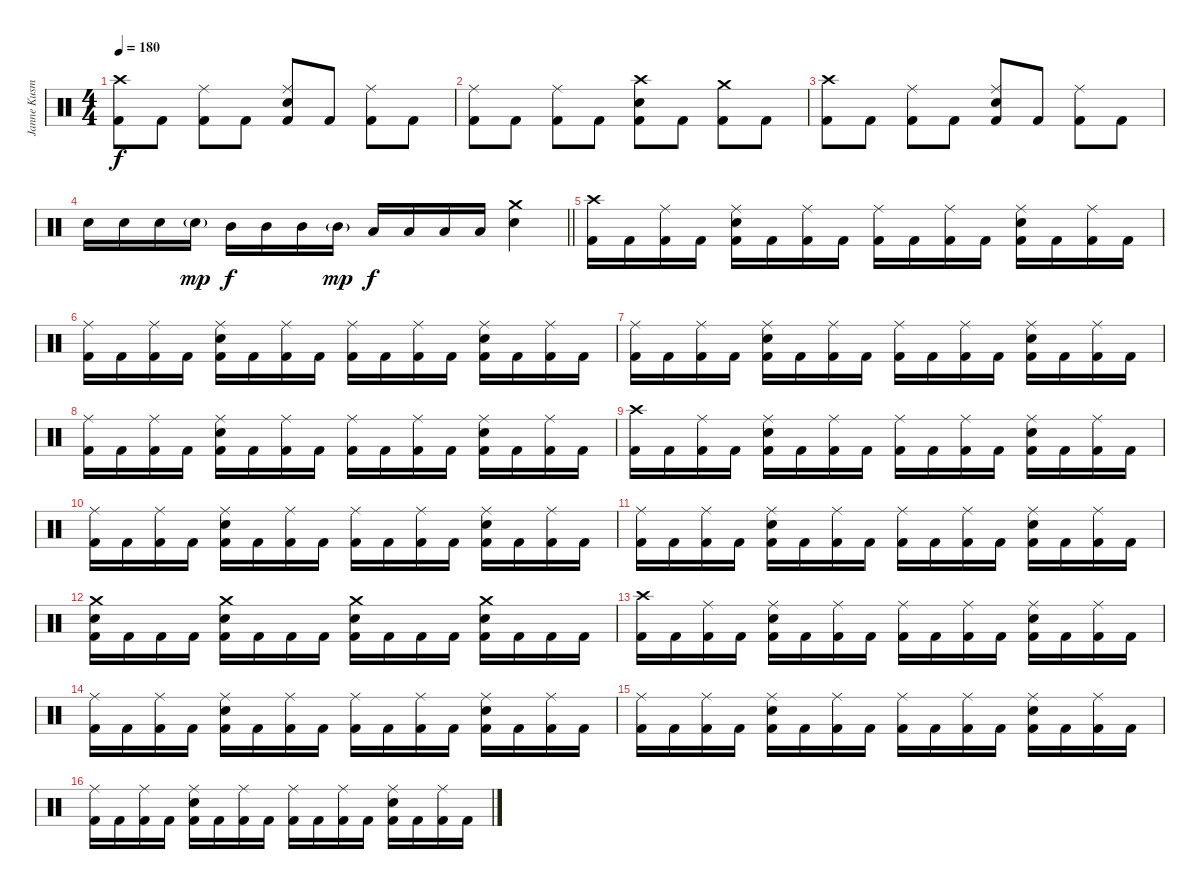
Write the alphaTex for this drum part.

\track ("Janne Kusmin - Drums" "Janne Kusm") {instrument percussion}
\staff {score}
\articulation defaults
\ts (4 4)
\tempo 180
\clef neutral
\ks c
("Crash high (hit)" "Kick (hit) 2").8{dy f} "Kick (hit) 2".8 ("Ride (middle)" "Kick (hit) 2").8 "Kick (hit) 2".8 ("Ride (middle)" "Electric Snare (hit)" "Kick (hit) 2").8 "Kick (hit) 2".8 ("Ride (middle)" "Kick (hit) 2").8 "Kick (hit) 2".8 |
("Ride (middle)" "Kick (hit) 2").8 "Kick (hit) 2".8 ("Ride (middle)" "Kick (hit) 2").8 "Kick (hit) 2".8 ("Crash high (hit)" "Electric Snare (hit)" "Kick (hit) 2").8 "Kick (hit) 2".8 ("Crash medium (hit)" "Kick (hit) 2").8 "Kick (hit) 2".8 |
("Crash high (hit)" "Kick (hit) 2").8 "Kick (hit) 2".8 ("Ride (middle)" "Kick (hit) 2").8 "Kick (hit) 2".8 ("Ride (middle)" "Electric Snare (hit)" "Kick (hit) 2").8 "Kick (hit) 2".8 ("Ride (middle)" "Kick (hit) 2").8 "Kick (hit) 2".8 |
\barLineRight lightlight "Electric Snare (hit)".16 "Electric Snare (hit)".16 "Electric Snare (hit)".16 "Electric Snare (hit)"{g}.16{dy mp} "Mid Tom (hit)".16{dy f} "Mid Tom (hit)".16 "Mid Tom (hit)".16 "Mid Tom (hit)"{g}.16{dy mp} "Low Tom (hit)".16{dy f} "Low Tom (hit)".16 "Low Tom (hit)".16 "Low Tom (hit)".16
("Crash medium (hit)" "Electric Snare (hit)").4 |
\section ("" "")
("Crash high (hit)" "Kick (hit) 2").16 "Kick (hit) 2".16 ("Ride (middle)" "Kick (hit) 2").16 "Kick (hit) 2".16 ("Ride (middle)" "Electric Snare (hit)" "Kick (hit) 2").16 "Kick (hit) 2".16 ("Ride (middle)" "Kick (hit) 2").16 "Kick (hit) 2".16 ("Ride (middle)" "Kick (hit) 2").16 "Kick (hit) 2".16 ("Ride (middle)" "Kick (hit) 2").16 "Kick (hit) 2".16 ("Ride (middle)" "Electric Snare (hit)" "Kick (hit) 2").16 "Kick (hit) 2".16 ("Ride (middle)" "Kick (hit) 2").16 "Kick (hit) 2".16 |
("Ride (middle)" "Kick (hit) 2").16 "Kick (hit) 2".16 ("Ride (middle)" "Kick (hit) 2").16 "Kick (hit) 2".16 ("Ride (middle)" "Electric Snare (hit)" "Kick (hit) 2").16 "Kick (hit) 2".16 ("Ride (middle)" "Kick (hit) 2").16 "Kick (hit) 2".16 ("Ride (middle)" "Kick (hit) 2").16 "Kick (hit) 2".16 ("Ride (middle)" "Kick (hit) 2").16 "Kick (hit) 2".16 ("Ride (middle)" "Electric Snare (hit)" "Kick (hit) 2").16 "Kick (hit) 2".16 ("Ride (middle)" "Kick (hit) 2").16 "Kick (hit) 2".16 |
("Ride (middle)" "Kick (hit) 2").16 "Kick (hit) 2".16 ("Ride (middle)" "Kick (hit) 2").16 "Kick (hit) 2".16 ("Ride (middle)" "Electric Snare (hit)" "Kick (hit) 2").16 "Kick (hit) 2".16 ("Ride (middle)" "Kick (hit) 2").16 "Kick (hit) 2".16 ("Ride (middle)" "Kick (hit) 2").16 "Kick (hit) 2".16 ("Ride (middle)" "Kick (hit) 2").16 "Kick (hit) 2".16 ("Ride (middle)" "Electric Snare (hit)" "Kick (hit) 2").16 "Kick (hit) 2".16 ("Ride (middle)" "Kick (hit) 2").16 "Kick (hit) 2".16 |
("Ride (middle)" "Kick (hit) 2").16 "Kick (hit) 2".16 ("Ride (middle)" "Kick (hit) 2").16 "Kick (hit) 2".16 ("Ride (middle)" "Electric Snare (hit)" "Kick (hit) 2").16 "Kick (hit) 2".16 ("Ride (middle)" "Kick (hit) 2").16 "Kick (hit) 2".16 ("Ride (middle)" "Kick (hit) 2").16 "Kick (hit) 2".16 ("Ride (middle)" "Kick (hit) 2").16 "Kick (hit) 2".16 ("Ride (middle)" "Electric Snare (hit)" "Kick (hit) 2").16 "Kick (hit) 2".16 ("Ride (middle)" "Kick (hit) 2").16 "Kick (hit) 2".16 |
("Crash high (hit)" "Kick (hit) 2").16 "Kick (hit) 2".16 ("Ride (middle)" "Kick (hit) 2").16 "Kick (hit) 2".16 ("Ride (middle)" "Electric Snare (hit)" "Kick (hit) 2").16 "Kick (hit) 2".16 ("Ride (middle)" "Kick (hit) 2").16 "Kick (hit) 2".16 ("Ride (middle)" "Kick (hit) 2").16 "Kick (hit) 2".16 ("Ride (middle)" "Kick (hit) 2").16 "Kick (hit) 2".16 ("Ride (middle)" "Electric Snare (hit)" "Kick (hit) 2").16 "Kick (hit) 2".16 ("Ride (middle)" "Kick (hit) 2").16 "Kick (hit) 2".16 |
("Ride (middle)" "Kick (hit) 2").16 "Kick (hit) 2".16 ("Ride (middle)" "Kick (hit) 2").16 "Kick (hit) 2".16 ("Ride (middle)" "Electric Snare (hit)" "Kick (hit) 2").16 "Kick (hit) 2".16 ("Ride (middle)" "Kick (hit) 2").16 "Kick (hit) 2".16 ("Ride (middle)" "Kick (hit) 2").16 "Kick (hit) 2".16 ("Ride (middle)" "Kick (hit) 2").16 "Kick (hit) 2".16 ("Ride (middle)" "Electric Snare (hit)" "Kick (hit) 2").16 "Kick (hit) 2".16 ("Ride (middle)" "Kick (hit) 2").16 "Kick (hit) 2".16 |
("Ride (middle)" "Kick (hit) 2").16 "Kick (hit) 2".16 ("Ride (middle)" "Kick (hit) 2").16 "Kick (hit) 2".16 ("Ride (middle)" "Electric Snare (hit)" "Kick (hit) 2").16 "Kick (hit) 2".16 ("Ride (middle)" "Kick (hit) 2").16 "Kick (hit) 2".16 ("Ride (middle)" "Kick (hit) 2").16 "Kick (hit) 2".16 ("Ride (middle)" "Kick (hit) 2").16 "Kick (hit) 2".16 ("Ride (middle)" "Electric Snare (hit)" "Kick (hit) 2").16 "Kick (hit) 2".16 ("Ride (middle)" "Kick (hit) 2").16 "Kick (hit) 2".16 |
("Crash medium (hit)" "Electric Snare (hit)" "Kick (hit) 2").16 "Kick (hit) 2".16 "Kick (hit) 2".16 "Kick (hit) 2".16 ("Crash medium (hit)" "Electric Snare (hit)" "Kick (hit) 2").16 "Kick (hit) 2".16 "Kick (hit) 2".16 "Kick (hit) 2".16 ("Crash medium (hit)" "Electric Snare (hit)" "Kick (hit) 2").16 "Kick (hit) 2".16 "Kick (hit) 2".16 "Kick (hit) 2".16 ("Crash medium (hit)" "Electric Snare (hit)" "Kick (hit) 2").16 "Kick (hit) 2".16 "Kick (hit) 2".16 "Kick (hit) 2".16 |
("Crash high (hit)" "Kick (hit) 2").16 "Kick (hit) 2".16 ("Ride (middle)" "Kick (hit) 2").16 "Kick (hit) 2".16 ("Ride (middle)" "Electric Snare (hit)" "Kick (hit) 2").16 "Kick (hit) 2".16 ("Ride (middle)" "Kick (hit) 2").16 "Kick (hit) 2".16 ("Ride (middle)" "Kick (hit) 2").16 "Kick (hit) 2".16 ("Ride (middle)" "Kick (hit) 2").16 "Kick (hit) 2".16 ("Ride (middle)" "Electric Snare (hit)" "Kick (hit) 2").16 "Kick (hit) 2".16 ("Ride (middle)" "Kick (hit) 2").16 "Kick (hit) 2".16 |
("Ride (middle)" "Kick (hit) 2").16 "Kick (hit) 2".16 ("Ride (middle)" "Kick (hit) 2").16 "Kick (hit) 2".16 ("Ride (middle)" "Electric Snare (hit)" "Kick (hit) 2").16 "Kick (hit) 2".16 ("Ride (middle)" "Kick (hit) 2").16 "Kick (hit) 2".16 ("Ride (middle)" "Kick (hit) 2").16 "Kick (hit) 2".16 ("Ride (middle)" "Kick (hit) 2").16 "Kick (hit) 2".16 ("Ride (middle)" "Electric Snare (hit)" "Kick (hit) 2").16 "Kick (hit) 2".16 ("Ride (middle)" "Kick (hit) 2").16 "Kick (hit) 2".16 |
("Ride (middle)" "Kick (hit) 2").16 "Kick (hit) 2".16 ("Ride (middle)" "Kick (hit) 2").16 "Kick (hit) 2".16 ("Ride (middle)" "Electric Snare (hit)" "Kick (hit) 2").16 "Kick (hit) 2".16 ("Ride (middle)" "Kick (hit) 2").16 "Kick (hit) 2".16 ("Ride (middle)" "Kick (hit) 2").16 "Kick (hit) 2".16 ("Ride (middle)" "Kick (hit) 2").16 "Kick (hit) 2".16 ("Ride (middle)" "Electric Snare (hit)" "Kick (hit) 2").16 "Kick (hit) 2".16 ("Ride (middle)" "Kick (hit) 2").16 "Kick (hit) 2".16 |
("Ride (middle)" "Kick (hit) 2").16 "Kick (hit) 2".16 ("Ride (middle)" "Kick (hit) 2").16 "Kick (hit) 2".16 ("Ride (middle)" "Electric Snare (hit)" "Kick (hit) 2").16 "Kick (hit) 2".16 ("Ride (middle)" "Kick (hit) 2").16 "Kick (hit) 2".16 ("Ride (middle)" "Kick (hit) 2").16 "Kick (hit) 2".16 ("Ride (middle)" "Kick (hit) 2").16 "Kick (hit) 2".16 ("Ride (middle)" "Electric Snare (hit)" "Kick (hit) 2").16 "Kick (hit) 2".16 ("Ride (middle)" "Kick (hit) 2").16 "Kick (hit) 2".16
